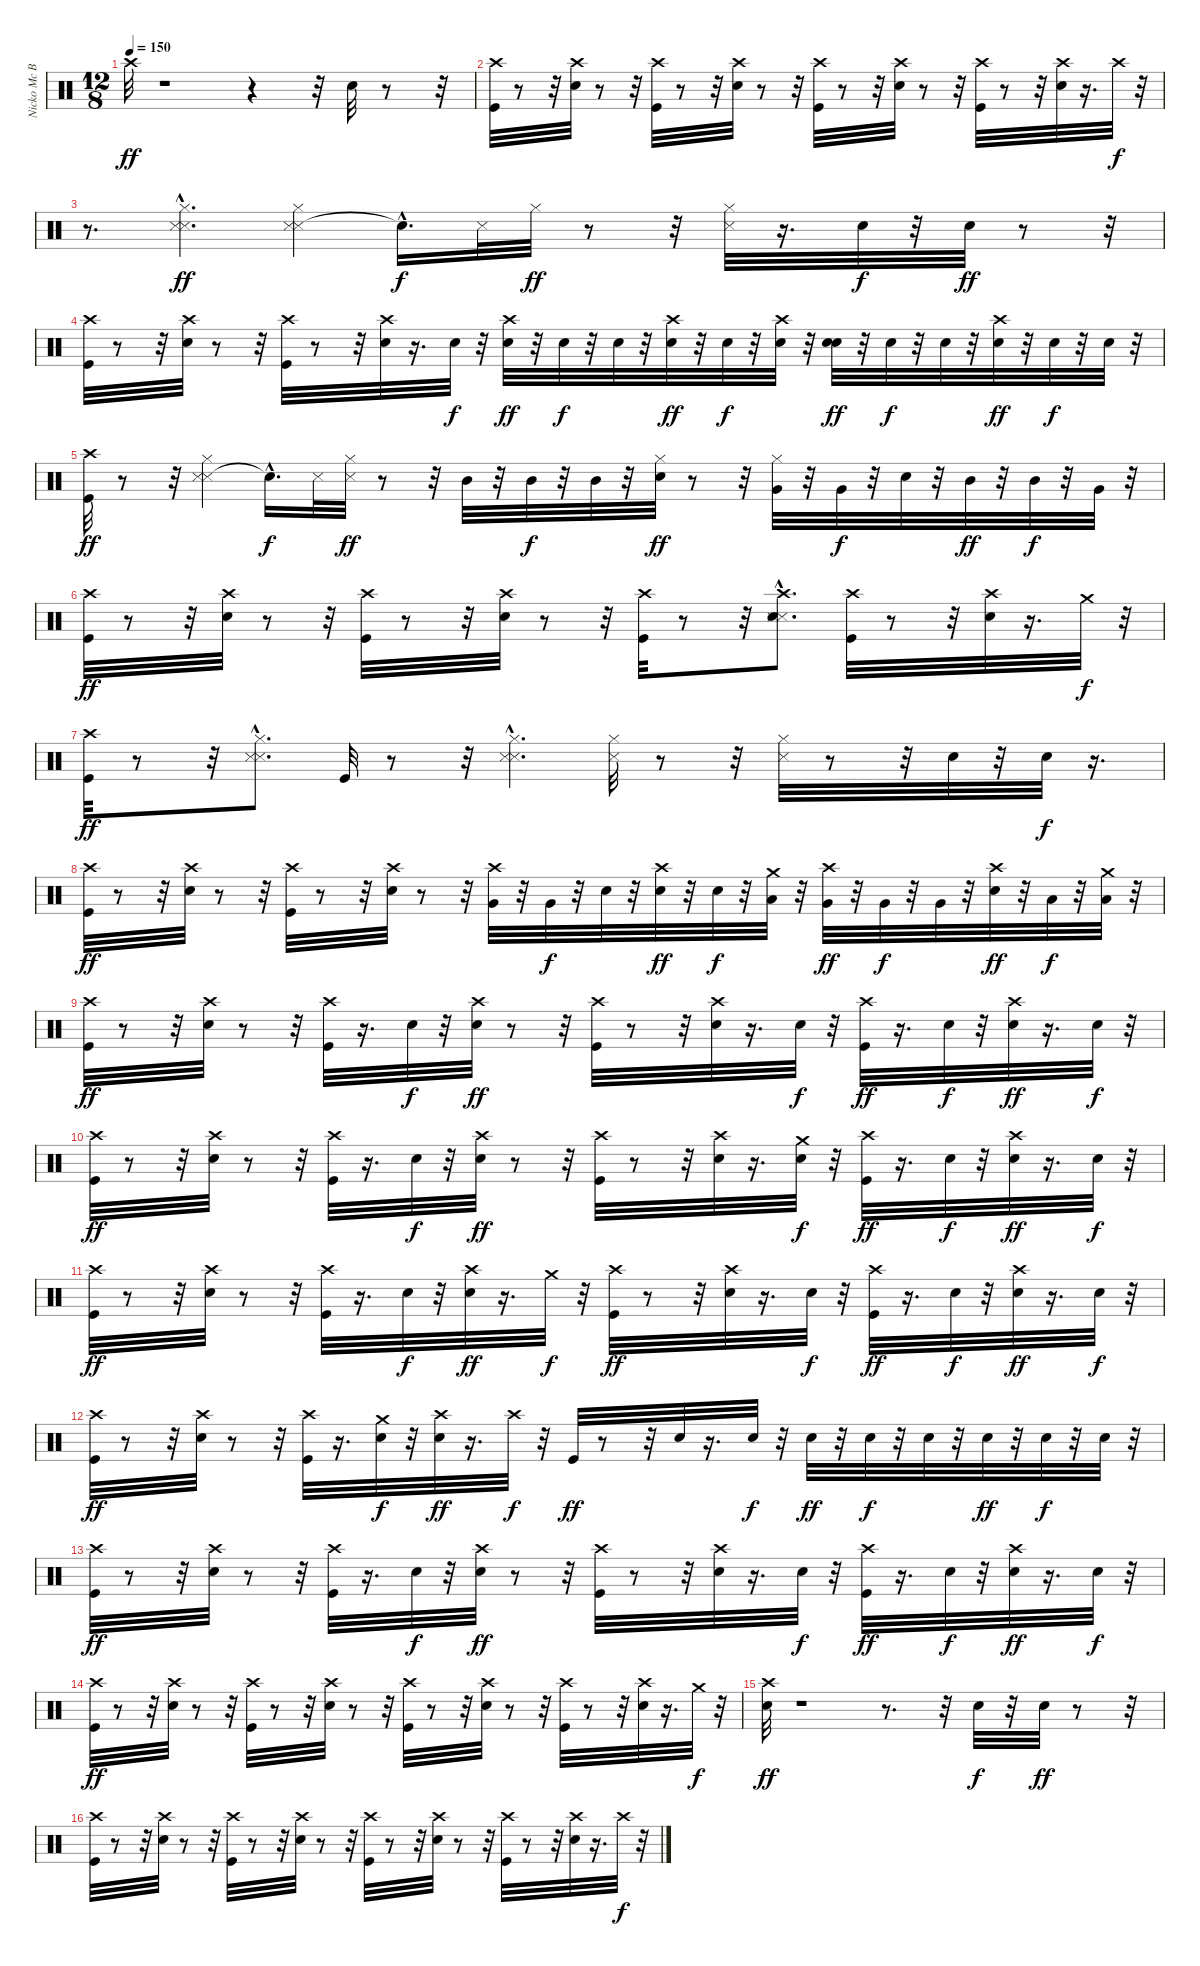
\track ("Nicko Mc Brain  ( drums )" "Nicko Mc B") {instrument percussion}
\staff {score}
\articulation defaults
\ts (12 8)
\tempo 150
\clef neutral
\ks c "Crash high (hit)".32{dy ff}
r.1 r.4 r.32 "Electric Snare (hit)".32 r.8 r.32 |
("Crash high (hit)" "Kick (hit)").32 r.8 r.32 ("Crash high (hit)" "Snare (hit) 2").32 r.8 r.32 ("Crash high (hit)" "Kick (hit)").32 r.8 r.32 ("Crash high (hit)" "Snare (hit) 2").32 r.8 r.32 ("Crash high (hit)" "Kick (hit)").32 r.8 r.32 ("Crash high (hit)" "Snare (hit) 2").32 r.8 r.32 ("Crash high (hit)" "Kick (hit)").32 r.8 r.32 ("Crash high (hit)" "Snare (hit) 2").32 r.16{d} "Crash high (hit)".32{dy f} r.32 |
r.8{d} ("Metronome (hit)"{hac} "Metronome (hit)" "Hi-Hat (closed)").4{d dy ff} ("Metronome (hit)" "Metronome (hit)" "Hi-Hat (closed)").4 "Snare (hit)"{hac t}.16{d dy f} "Metronome (hit)".32 "Hi-Hat (closed)".32{dy ff} r.8 r.32 ("Hi-Hat (closed)" "Metronome (hit)").32 r.16{d} "Snare (hit) 2".32{dy f} r.32 "Snare (hit) 2".32{dy ff} r.8 r.32 |
("Crash high (hit)" "Kick (hit)").32 r.8 r.32 ("Crash high (hit)" "Snare (hit) 2").32 r.8 r.32 ("Crash high (hit)" "Kick (hit)").32 r.8 r.32 ("Crash high (hit)" "Snare (hit) 2").32 r.16{d} "Snare (hit) 2".32{dy f} r.32 ("Electric Snare (hit)" "Crash high (hit)").32{dy ff} r.32 "Snare (hit) 2".32{dy f} r.32 "Snare (hit) 2".32 r.32 ("Snare (hit) 2" "Crash high (hit)").32{dy ff} r.32 "Snare (hit) 2".32{dy f} r.32 ("Snare (hit) 2" "Crash high (hit)").32 r.32 ("Snare (hit) 2" "Electric Snare (hit)").32{dy ff} r.32 "Snare (hit) 2".32{dy f} r.32 "Snare (hit) 2".32 r.32 ("Snare (hit) 2" "Crash high (hit)").32{dy ff} r.32 "Snare (hit) 2".32{dy f} r.32 "Snare (hit) 2".32 r.32 |
("Kick (hit)" "Crash high (hit)").32{dy ff} r.8 r.32 ("Metronome (hit)" "Metronome (hit)" "Hi-Hat (closed)").4 "Snare (hit)"{hac t}.16{d dy f} "Metronome (hit)".32 ("Metronome (hit)" "Hi-Hat (closed)").32{dy ff} r.8 r.32 "Mid Tom (hit)".32 r.32 "Mid Tom (hit)".32{dy f} r.32 "Mid Tom (hit)".32 r.32 ("Hi-Hat (closed)" "Electric Snare (hit)").32{dy ff} r.8 r.32 ("Hi-Hat (closed)" "Very Low Tom (hit)").32 r.32 "Very Low Tom (hit)".32{dy f} r.32 "Electric Snare (hit)".32 r.32 "Mid Tom (hit)".32{dy ff} r.32 "Mid Tom (hit)".32{dy f} r.32 "Very Low Tom (hit)".32 r.32 |
("Crash high (hit)" "Kick (hit)").32{dy ff} r.8 r.32 ("Crash high (hit)" "Snare (hit) 2").32 r.8 r.32 ("Crash high (hit)" "Kick (hit)").32 r.8 r.32 ("Crash high (hit)" "Snare (hit) 2").32 r.8 r.32 ("Crash high (hit)" "Kick (hit)").32 r.8 r.32 ("Metronome (hit)"{hac} "Metronome (hit)" "Crash high (hit)" "Snare (hit) 2").8{d} ("Crash high (hit)" "Kick (hit)").32 r.8 r.32 ("Crash high (hit)" "Snare (hit) 2").32 r.16{d} "Crash medium (hit)".32{dy f} r.32 |
("Kick (hit)" "Crash high (hit)").32{dy ff} r.8 r.32 ("Metronome (hit)"{hac} "Metronome (hit)" "Hi-Hat (closed)").8{d} "Kick (hit)".32 r.8 r.32 ("Metronome (hit)"{hac} "Metronome (hit)" "Hi-Hat (closed)").4{d} ("Metronome (hit)" "Hi-Hat (closed)").32 r.8 r.32 ("Hi-Hat (closed)" "Metronome (hit)").32 r.8 r.32 "Snare (hit) 2".32 r.32 "Snare (hit) 2".32{dy f} r.16{d} |
("Crash high (hit)" "Kick (hit)").32{dy ff} r.8 r.32 ("Crash high (hit)" "Snare (hit) 2").32 r.8 r.32 ("Crash high (hit)" "Kick (hit)").32 r.8 r.32 ("Crash high (hit)" "Snare (hit) 2").32 r.8 r.32 ("Very Low Tom (hit)" "Crash high (hit)").32 r.32 "Very Low Tom (hit)".32{dy f} r.32 "Snare (hit) 2".32 r.32 ("Snare (hit) 2" "Crash high (hit)").32{dy ff} r.32 "Snare (hit) 2".32{dy f} r.32 ("Crash medium (hit)" "Low Tom (hit)").32 r.32 ("Very Low Tom (hit)" "Crash high (hit)").32{dy ff} r.32 "Very Low Tom (hit)".32{dy f} r.32 "Very Low Tom (hit)".32 r.32 ("Crash high (hit)" "Snare (hit) 2").32{dy ff} r.32 "Low Tom (hit)".32{dy f} r.32 ("Crash medium (hit)" "Low Tom (hit)").32 r.32 |
("Crash high (hit)" "Kick (hit)").32{dy ff} r.8 r.32 ("Crash high (hit)" "Snare (hit) 2").32 r.8 r.32 ("Crash high (hit)" "Kick (hit)").32 r.16{d} "Snare (hit) 2".32{dy f} r.32 ("Crash high (hit)" "Snare (hit) 2").32{dy ff} r.8 r.32 ("Crash high (hit)" "Kick (hit)").32 r.8 r.32 ("Crash high (hit)" "Snare (hit) 2").32 r.16{d} "Snare (hit) 2".32{dy f} r.32 ("Crash high (hit)" "Kick (hit)").32{dy ff} r.16{d} "Snare (hit) 2".32{dy f} r.32 ("Crash high (hit)" "Snare (hit) 2").32{dy ff} r.16{d} "Snare (hit) 2".32{dy f} r.32 |
("Crash high (hit)" "Kick (hit)").32{dy ff} r.8 r.32 ("Crash high (hit)" "Snare (hit) 2").32 r.8 r.32 ("Crash high (hit)" "Kick (hit)").32 r.16{d} "Snare (hit) 2".32{dy f} r.32 ("Crash high (hit)" "Snare (hit) 2").32{dy ff} r.8 r.32 ("Crash high (hit)" "Kick (hit)").32 r.8 r.32 ("Crash high (hit)" "Snare (hit) 2").32 r.16{d} ("Crash medium (hit)" "Snare (hit) 2").32{dy f} r.32 ("Crash high (hit)" "Kick (hit)").32{dy ff} r.16{d} "Snare (hit) 2".32{dy f} r.32 ("Crash high (hit)" "Snare (hit) 2").32{dy ff} r.16{d} "Snare (hit) 2".32{dy f} r.32 |
("Crash high (hit)" "Kick (hit)").32{dy ff} r.8 r.32 ("Crash high (hit)" "Snare (hit) 2").32 r.8 r.32 ("Crash high (hit)" "Kick (hit)").32 r.16{d} "Snare (hit) 2".32{dy f} r.32 ("Crash high (hit)" "Snare (hit) 2").32{dy ff} r.16{d} "Crash medium (hit)".32{dy f} r.32 ("Crash high (hit)" "Kick (hit)").32{dy ff} r.8 r.32 ("Crash high (hit)" "Snare (hit) 2").32 r.16{d} "Snare (hit) 2".32{dy f} r.32 ("Crash high (hit)" "Kick (hit)").32{dy ff} r.16{d} "Snare (hit) 2".32{dy f} r.32 ("Crash high (hit)" "Snare (hit) 2").32{dy ff} r.16{d} "Snare (hit) 2".32{dy f} r.32 |
("Crash high (hit)" "Kick (hit)").32{dy ff} r.8 r.32 ("Crash high (hit)" "Snare (hit) 2").32 r.8 r.32 ("Crash high (hit)" "Kick (hit)").32 r.16{d} ("Crash medium (hit)" "Snare (hit) 2").32{dy f} r.32 ("Crash high (hit)" "Snare (hit) 2").32{dy ff} r.16{d} "Crash high (hit)".32{dy f} r.32 "Kick (hit)".32{dy ff} r.8 r.32 "Snare (hit) 2".32 r.16{d} "Electric Snare (hit)".32{dy f} r.32 "Snare (hit) 2".32{dy ff} r.32 "Snare (hit) 2".32{dy f} r.32 "Snare (hit) 2".32 r.32 "Snare (hit) 2".32{dy ff} r.32 "Snare (hit) 2".32{dy f} r.32 "Snare (hit) 2".32 r.32 |
("Crash high (hit)" "Kick (hit)").32{dy ff} r.8 r.32 ("Crash high (hit)" "Snare (hit) 2").32 r.8 r.32 ("Crash high (hit)" "Kick (hit)").32 r.16{d} "Snare (hit) 2".32{dy f} r.32 ("Crash high (hit)" "Snare (hit) 2").32{dy ff} r.8 r.32 ("Crash high (hit)" "Kick (hit)").32 r.8 r.32 ("Crash high (hit)" "Snare (hit) 2").32 r.16{d} "Snare (hit) 2".32{dy f} r.32 ("Crash high (hit)" "Kick (hit)").32{dy ff} r.16{d} "Snare (hit) 2".32{dy f} r.32 ("Crash high (hit)" "Snare (hit) 2").32{dy ff} r.16{d} "Snare (hit) 2".32{dy f} r.32 |
("Crash high (hit)" "Kick (hit)").32{dy ff} r.8 r.32 ("Crash high (hit)" "Snare (hit) 2").32 r.8 r.32 ("Crash high (hit)" "Kick (hit)").32 r.8 r.32 ("Crash high (hit)" "Snare (hit) 2").32 r.8 r.32 ("Crash high (hit)" "Kick (hit)").32 r.8 r.32 ("Crash high (hit)" "Snare (hit) 2").32 r.8 r.32 ("Crash high (hit)" "Kick (hit)").32 r.8 r.32 ("Crash high (hit)" "Snare (hit) 2").32 r.16{d} "Crash medium (hit)".32{dy f} r.32 |
("Snare (hit) 2" "Crash high (hit)").32{dy ff} r.1 r.8{d} r.32 "Snare (hit) 2".32{dy f} r.32 "Electric Snare (hit)".32{dy ff} r.8 r.32 |
("Crash high (hit)" "Kick (hit)").32 r.8 r.32 ("Crash high (hit)" "Snare (hit) 2").32 r.8 r.32 ("Crash high (hit)" "Kick (hit)").32 r.8 r.32 ("Crash high (hit)" "Snare (hit) 2").32 r.8 r.32 ("Crash high (hit)" "Kick (hit)").32 r.8 r.32 ("Crash high (hit)" "Snare (hit) 2").32 r.8 r.32 ("Crash high (hit)" "Kick (hit)").32 r.8 r.32 ("Crash high (hit)" "Snare (hit) 2").32 r.16{d} "Crash high (hit)".32{dy f} r.32
